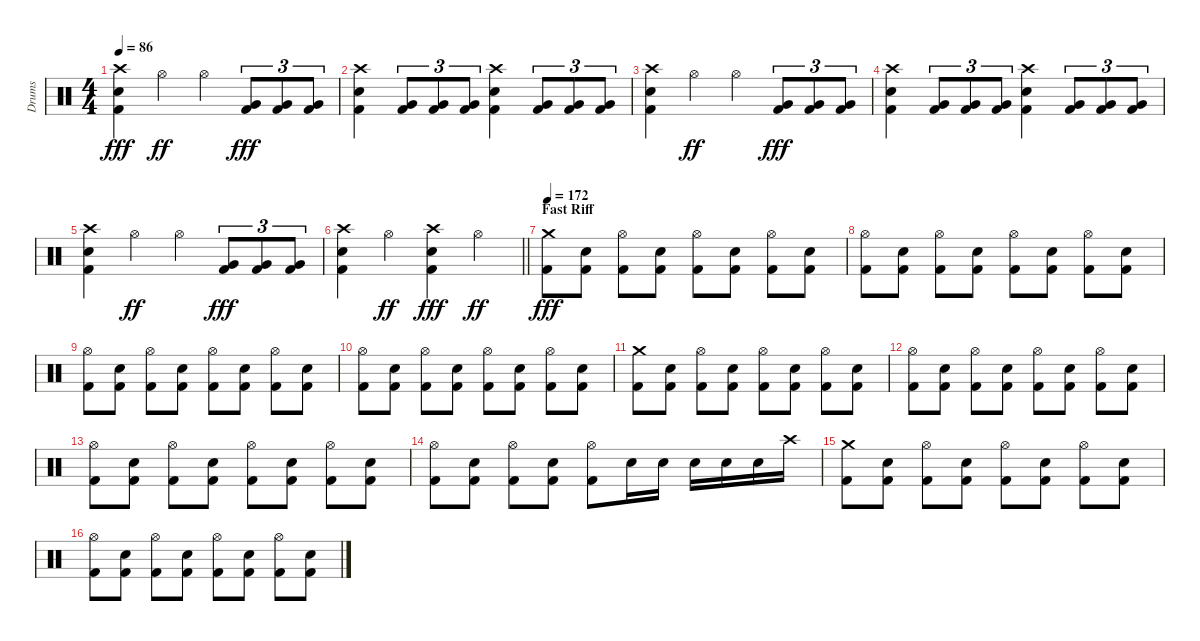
\track ("Drums" "Drums") {instrument percussion}
\staff {score}
\articulation defaults
\ts (4 4)
\tempo 86
\clef neutral
\ks c
("Crash high (hit)" "Electric Snare (hit)" "Kick (hit) 2").4{dy fff} "Hi-Hat (open)".4{dy ff} "Hi-Hat (open)".4 ("Very Low Tom (hit)" "Kick (hit) 2").8{tu (3 2) dy fff} ("Very Low Tom (hit)" "Kick (hit) 2").8{tu (3 2)} ("Very Low Tom (hit)" "Kick (hit) 2").8{tu (3 2)} |
("Crash high (hit)" "Electric Snare (hit)" "Kick (hit) 2").4 ("Very Low Tom (hit)" "Kick (hit) 2").8{tu (3 2)} ("Very Low Tom (hit)" "Kick (hit) 2").8{tu (3 2)} ("Very Low Tom (hit)" "Kick (hit) 2").8{tu (3 2)} ("Crash high (hit)" "Electric Snare (hit)" "Kick (hit) 2").4 ("Very Low Tom (hit)" "Kick (hit) 2").8{tu (3 2)} ("Very Low Tom (hit)" "Kick (hit) 2").8{tu (3 2)} ("Very Low Tom (hit)" "Kick (hit) 2").8{tu (3 2)} |
("Crash high (hit)" "Electric Snare (hit)" "Kick (hit) 2").4 "Hi-Hat (open)".4{dy ff} "Hi-Hat (open)".4 ("Very Low Tom (hit)" "Kick (hit) 2").8{tu (3 2) dy fff} ("Very Low Tom (hit)" "Kick (hit) 2").8{tu (3 2)} ("Very Low Tom (hit)" "Kick (hit) 2").8{tu (3 2)} |
("Crash high (hit)" "Electric Snare (hit)" "Kick (hit) 2").4 ("Very Low Tom (hit)" "Kick (hit) 2").8{tu (3 2)} ("Very Low Tom (hit)" "Kick (hit) 2").8{tu (3 2)} ("Very Low Tom (hit)" "Kick (hit) 2").8{tu (3 2)} ("Crash high (hit)" "Electric Snare (hit)" "Kick (hit) 2").4 ("Very Low Tom (hit)" "Kick (hit) 2").8{tu (3 2)} ("Very Low Tom (hit)" "Kick (hit) 2").8{tu (3 2)} ("Very Low Tom (hit)" "Kick (hit) 2").8{tu (3 2)} |
("Crash high (hit)" "Electric Snare (hit)" "Kick (hit) 2").4 "Hi-Hat (open)".4{dy ff} "Hi-Hat (open)".4 ("Very Low Tom (hit)" "Kick (hit) 2").8{tu (3 2) dy fff} ("Very Low Tom (hit)" "Kick (hit) 2").8{tu (3 2)} ("Very Low Tom (hit)" "Kick (hit) 2").8{tu (3 2)} |
\barLineRight lightlight
("Crash high (hit)" "Electric Snare (hit)" "Kick (hit) 2").4 "Hi-Hat (open)".4{dy ff} ("Crash high (hit)" "Electric Snare (hit)" "Kick (hit) 2").4{dy fff} "Hi-Hat (open)".4{dy ff} |
\section ("" "Fast Riff")
\tempo 172
("Crash medium (hit)" "Kick (hit) 2").8{dy fff} ("Electric Snare (hit)" "Kick (hit) 2").8 ("Hi-Hat (open)" "Kick (hit) 2").8 ("Electric Snare (hit)" "Kick (hit) 2").8 ("Hi-Hat (open)" "Kick (hit) 2").8 ("Electric Snare (hit)" "Kick (hit) 2").8 ("Hi-Hat (open)" "Kick (hit) 2").8 ("Electric Snare (hit)" "Kick (hit) 2").8 |
("Hi-Hat (open)" "Kick (hit) 2").8 ("Electric Snare (hit)" "Kick (hit) 2").8 ("Hi-Hat (open)" "Kick (hit) 2").8 ("Electric Snare (hit)" "Kick (hit) 2").8 ("Hi-Hat (open)" "Kick (hit) 2").8 ("Electric Snare (hit)" "Kick (hit) 2").8 ("Hi-Hat (open)" "Kick (hit) 2").8 ("Electric Snare (hit)" "Kick (hit) 2").8 |
("Hi-Hat (open)" "Kick (hit) 2").8 ("Electric Snare (hit)" "Kick (hit) 2").8 ("Hi-Hat (open)" "Kick (hit) 2").8 ("Electric Snare (hit)" "Kick (hit) 2").8 ("Hi-Hat (open)" "Kick (hit) 2").8 ("Electric Snare (hit)" "Kick (hit) 2").8 ("Hi-Hat (open)" "Kick (hit) 2").8 ("Electric Snare (hit)" "Kick (hit) 2").8 |
("Hi-Hat (open)" "Kick (hit) 2").8 ("Electric Snare (hit)" "Kick (hit) 2").8 ("Hi-Hat (open)" "Kick (hit) 2").8 ("Electric Snare (hit)" "Kick (hit) 2").8 ("Hi-Hat (open)" "Kick (hit) 2").8 ("Electric Snare (hit)" "Kick (hit) 2").8 ("Hi-Hat (open)" "Kick (hit) 2").8 ("Electric Snare (hit)" "Kick (hit) 2").8 |
("Crash medium (hit)" "Kick (hit) 2").8 ("Electric Snare (hit)" "Kick (hit) 2").8 ("Hi-Hat (open)" "Kick (hit) 2").8 ("Electric Snare (hit)" "Kick (hit) 2").8 ("Hi-Hat (open)" "Kick (hit) 2").8 ("Electric Snare (hit)" "Kick (hit) 2").8 ("Hi-Hat (open)" "Kick (hit) 2").8 ("Electric Snare (hit)" "Kick (hit) 2").8 |
("Hi-Hat (open)" "Kick (hit) 2").8 ("Electric Snare (hit)" "Kick (hit) 2").8 ("Hi-Hat (open)" "Kick (hit) 2").8 ("Electric Snare (hit)" "Kick (hit) 2").8 ("Hi-Hat (open)" "Kick (hit) 2").8 ("Electric Snare (hit)" "Kick (hit) 2").8 ("Hi-Hat (open)" "Kick (hit) 2").8 ("Electric Snare (hit)" "Kick (hit) 2").8 |
("Hi-Hat (open)" "Kick (hit) 2").8 ("Electric Snare (hit)" "Kick (hit) 2").8 ("Hi-Hat (open)" "Kick (hit) 2").8 ("Electric Snare (hit)" "Kick (hit) 2").8 ("Hi-Hat (open)" "Kick (hit) 2").8 ("Electric Snare (hit)" "Kick (hit) 2").8 ("Hi-Hat (open)" "Kick (hit) 2").8 ("Electric Snare (hit)" "Kick (hit) 2").8 |
("Hi-Hat (open)" "Kick (hit) 2").8 ("Electric Snare (hit)" "Kick (hit) 2").8 ("Hi-Hat (open)" "Kick (hit) 2").8 ("Electric Snare (hit)" "Kick (hit) 2").8 ("Hi-Hat (open)" "Kick (hit) 2").8 "Electric Snare (hit)".16 "Electric Snare (hit)".16 "Electric Snare (hit)".16 "Electric Snare (hit)".16 "Electric Snare (hit)".16 "Crash high (hit)".16 |
("Crash medium (hit)" "Kick (hit) 2").8 ("Electric Snare (hit)" "Kick (hit) 2").8 ("Hi-Hat (open)" "Kick (hit) 2").8 ("Electric Snare (hit)" "Kick (hit) 2").8 ("Hi-Hat (open)" "Kick (hit) 2").8 ("Electric Snare (hit)" "Kick (hit) 2").8 ("Hi-Hat (open)" "Kick (hit) 2").8 ("Electric Snare (hit)" "Kick (hit) 2").8 |
("Hi-Hat (open)" "Kick (hit) 2").8 ("Electric Snare (hit)" "Kick (hit) 2").8 ("Hi-Hat (open)" "Kick (hit) 2").8 ("Electric Snare (hit)" "Kick (hit) 2").8 ("Hi-Hat (open)" "Kick (hit) 2").8 ("Electric Snare (hit)" "Kick (hit) 2").8 ("Hi-Hat (open)" "Kick (hit) 2").8 ("Electric Snare (hit)" "Kick (hit) 2").8
